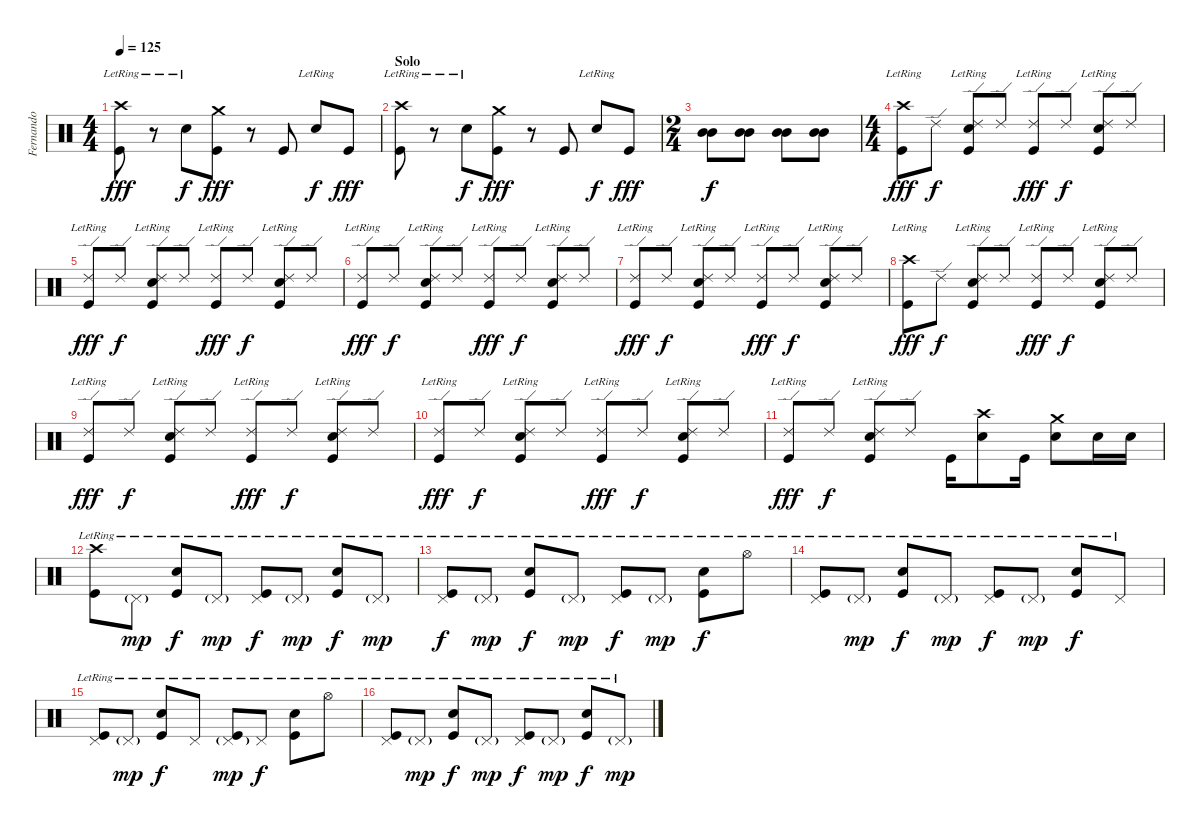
\track ("Fernando" "Fernando") {instrument percussion}
\staff {score}
\articulation defaults
\ts (4 4)
\tempo 125
\clef neutral
\ks c
("Crash high (hit)" "Kick (hit)"{lr}).8{dy fff} r.8 "Electric Snare (hit)"{lr}.8{dy f} ("Crash medium (hit)" "Kick (hit)").8{dy fff} r.8 "Kick (hit)".8 "Electric Snare (hit)"{lr}.8{dy f} "Kick (hit)".8{dy fff} |
\section ("" "Solo")
("Crash high (hit)" "Kick (hit)"{lr}).8 r.8 "Electric Snare (hit)"{lr}.8{dy f} ("Crash medium (hit)" "Kick (hit)").8{dy fff} r.8 "Kick (hit)".8 "Electric Snare (hit)"{lr}.8{dy f} "Kick (hit)".8{dy fff} |
\ts (2 4)
("Mid Tom (hit)" "Mid Tom (hit)").8{dy f} ("Mid Tom (hit)" "Mid Tom (hit)").8 ("Mid Tom (hit)" "Mid Tom (hit)").8 ("Mid Tom (hit)" "Mid Tom (hit)").8 |
\ts (4 4)
("Crash high (hit)" "Kick (hit)"{lr}).8{dy fff} "Ride (edge) 2".8{dy f} ("Ride (edge) 2" "Electric Snare (hit)"{lr} "Kick (hit)"{lr}).8 "Ride (edge) 2".8 ("Ride (edge) 2" "Kick (hit)"{lr}).8{dy fff} "Ride (edge) 2".8{dy f} ("Ride (edge) 2" "Electric Snare (hit)"{lr} "Kick (hit)"{lr}).8 "Ride (edge) 2".8 |
("Ride (edge) 2" "Kick (hit)"{lr}).8{dy fff} "Ride (edge) 2".8{dy f} ("Ride (edge) 2" "Electric Snare (hit)"{lr} "Kick (hit)"{lr}).8 "Ride (edge) 2".8 ("Ride (edge) 2" "Kick (hit)"{lr}).8{dy fff} "Ride (edge) 2".8{dy f} ("Ride (edge) 2" "Electric Snare (hit)"{lr} "Kick (hit)"{lr}).8 "Ride (edge) 2".8 |
("Ride (edge) 2" "Kick (hit)"{lr}).8{dy fff} "Ride (edge) 2".8{dy f} ("Ride (edge) 2" "Electric Snare (hit)"{lr} "Kick (hit)"{lr}).8 "Ride (edge) 2".8 ("Ride (edge) 2" "Kick (hit)"{lr}).8{dy fff} "Ride (edge) 2".8{dy f} ("Ride (edge) 2" "Electric Snare (hit)"{lr} "Kick (hit)"{lr}).8 "Ride (edge) 2".8 |
("Ride (edge) 2" "Kick (hit)"{lr}).8{dy fff} "Ride (edge) 2".8{dy f} ("Ride (edge) 2" "Electric Snare (hit)"{lr} "Kick (hit)"{lr}).8 "Ride (edge) 2".8 ("Ride (edge) 2" "Kick (hit)"{lr}).8{dy fff} "Ride (edge) 2".8{dy f} ("Ride (edge) 2" "Electric Snare (hit)"{lr} "Kick (hit)"{lr}).8 "Ride (edge) 2".8 |
("Crash high (hit)" "Kick (hit)"{lr}).8{dy fff} "Ride (edge) 2".8{dy f} ("Ride (edge) 2" "Electric Snare (hit)"{lr} "Kick (hit)"{lr}).8 "Ride (edge) 2".8 ("Ride (edge) 2" "Kick (hit)"{lr}).8{dy fff} "Ride (edge) 2".8{dy f} ("Ride (edge) 2" "Electric Snare (hit)"{lr} "Kick (hit)"{lr}).8 "Ride (edge) 2".8 |
("Ride (edge) 2" "Kick (hit)"{lr}).8{dy fff} "Ride (edge) 2".8{dy f} ("Ride (edge) 2" "Electric Snare (hit)"{lr} "Kick (hit)"{lr}).8 "Ride (edge) 2".8 ("Ride (edge) 2" "Kick (hit)"{lr}).8{dy fff} "Ride (edge) 2".8{dy f} ("Ride (edge) 2" "Electric Snare (hit)"{lr} "Kick (hit)"{lr}).8 "Ride (edge) 2".8 |
("Ride (edge) 2" "Kick (hit)"{lr}).8{dy fff} "Ride (edge) 2".8{dy f} ("Ride (edge) 2" "Electric Snare (hit)"{lr} "Kick (hit)"{lr}).8 "Ride (edge) 2".8 ("Ride (edge) 2" "Kick (hit)"{lr}).8{dy fff} "Ride (edge) 2".8{dy f} ("Ride (edge) 2" "Electric Snare (hit)"{lr} "Kick (hit)"{lr}).8 "Ride (edge) 2".8 |
("Ride (edge) 2" "Kick (hit)"{lr}).8{dy fff} "Ride (edge) 2".8{dy f} ("Ride (edge) 2" "Electric Snare (hit)"{lr} "Kick (hit)"{lr}).8 "Ride (edge) 2".8 "Kick (hit)".16 ("Crash high (hit)" "Electric Snare (hit)").8 "Kick (hit)".16 ("Crash medium (hit)" "Electric Snare (hit)").8 "Electric Snare (hit)".16 "Electric Snare (hit)".16 |
("Crash high (hit)" "Kick (hit)"{lr}).8 "Pedal Hi-Hat (hit)"{g lr}.8{dy mp} ("Electric Snare (hit)"{lr} "Kick (hit)"{lr}).8{dy f} "Pedal Hi-Hat (hit)"{g lr}.8{dy mp} ("Pedal Hi-Hat (hit)"{lr} "Kick (hit)"{lr}).8{dy f} "Pedal Hi-Hat (hit)"{g lr}.8{dy mp} ("Electric Snare (hit)"{lr} "Kick (hit)"{lr}).8{dy f} "Pedal Hi-Hat (hit)"{g lr}.8{dy mp} |
("Pedal Hi-Hat (hit)"{lr} "Kick (hit)"{lr}).8{dy f} "Pedal Hi-Hat (hit)"{g lr}.8{dy mp} ("Electric Snare (hit)"{lr} "Kick (hit)"{lr}).8{dy f} "Pedal Hi-Hat (hit)"{g lr}.8{dy mp} ("Pedal Hi-Hat (hit)"{lr} "Kick (hit)"{lr}).8{dy f} "Pedal Hi-Hat (hit)"{g lr}.8{dy mp} ("Electric Snare (hit)"{lr} "Kick (hit)"{lr}).8{dy f} "Hi-Hat (open)"{lr}.8 |
("Pedal Hi-Hat (hit)"{lr} "Kick (hit)"{lr}).8 "Pedal Hi-Hat (hit)"{g lr}.8{dy mp} ("Electric Snare (hit)"{lr} "Kick (hit)"{lr}).8{dy f} "Pedal Hi-Hat (hit)"{g lr}.8{dy mp} ("Pedal Hi-Hat (hit)"{lr} "Kick (hit)"{lr}).8{dy f} "Pedal Hi-Hat (hit)"{g lr}.8{dy mp} ("Electric Snare (hit)"{lr} "Kick (hit)"{lr}).8{dy f} "Pedal Hi-Hat (hit)"{lr}.8 |
("Pedal Hi-Hat (hit)"{lr} "Kick (hit)"{lr}).8 "Pedal Hi-Hat (hit)"{g lr}.8{dy mp} ("Electric Snare (hit)"{lr} "Kick (hit)"{lr}).8{dy f} "Pedal Hi-Hat (hit)"{lr}.8 ("Pedal Hi-Hat (hit)"{g lr} "Kick (hit)"{lr}).8{dy mp} "Pedal Hi-Hat (hit)"{lr}.8{dy f} ("Electric Snare (hit)"{lr} "Kick (hit)"{lr}).8 "Hi-Hat (open)"{lr}.8 |
("Pedal Hi-Hat (hit)"{lr} "Kick (hit)"{lr}).8 "Pedal Hi-Hat (hit)"{g lr}.8{dy mp} ("Electric Snare (hit)"{lr} "Kick (hit)"{lr}).8{dy f} "Pedal Hi-Hat (hit)"{g lr}.8{dy mp} ("Pedal Hi-Hat (hit)"{lr} "Kick (hit)"{lr}).8{dy f} "Pedal Hi-Hat (hit)"{g lr}.8{dy mp} ("Electric Snare (hit)"{lr} "Kick (hit)"{lr}).8{dy f} "Pedal Hi-Hat (hit)"{g lr}.8{dy mp}
